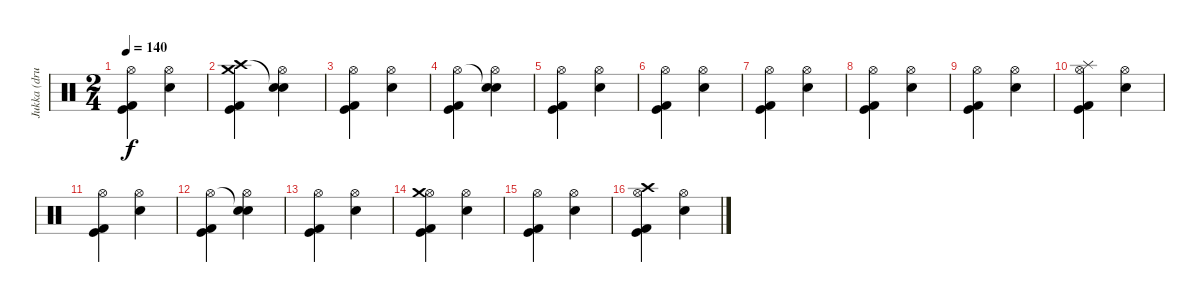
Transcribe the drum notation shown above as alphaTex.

\track ("Jukka (drums)" "Jukka (dru") {instrument percussion}
\staff {score}
\articulation defaults
\ts (2 4)
\tempo 140
\clef neutral
\ks c
("Kick (hit)" "Kick (hit) 2" "Hi-Hat (open)").4{dy f} ("Electric Snare (hit)" "Hi-Hat (open)").4 |
("Kick (hit)" "Kick (hit) 2" "Crash high (hit)" "Crash medium (hit)").4 ("Electric Snare (hit)" "Hi-Hat (open)" "Snare (hit)"{t}).4 |
("Kick (hit)" "Kick (hit) 2" "Hi-Hat (open)").4 ("Electric Snare (hit)" "Hi-Hat (open)").4 |
("Kick (hit)" "Kick (hit) 2" "Hi-Hat (open)").4 ("Electric Snare (hit)" "Hi-Hat (open)" "Snare (hit)"{t}).4 |
("Kick (hit)" "Kick (hit) 2" "Hi-Hat (open)").4 ("Electric Snare (hit)" "Hi-Hat (open)").4 |
("Kick (hit)" "Kick (hit) 2" "Hi-Hat (open)").4 ("Electric Snare (hit)" "Hi-Hat (open)").4 |
("Kick (hit)" "Kick (hit) 2" "Hi-Hat (open)").4 ("Electric Snare (hit)" "Hi-Hat (open)").4 |
("Kick (hit)" "Kick (hit) 2" "Hi-Hat (open)").4 ("Electric Snare (hit)" "Hi-Hat (open)").4 |
("Kick (hit)" "Kick (hit) 2" "Hi-Hat (open)").4 ("Electric Snare (hit)" "Hi-Hat (open)").4 |
("Kick (hit)" "Kick (hit) 2" "Hi-Hat (open)" "Splash (hit)").4 ("Electric Snare (hit)" "Hi-Hat (open)").4 |
("Kick (hit)" "Kick (hit) 2" "Hi-Hat (open)").4 ("Electric Snare (hit)" "Hi-Hat (open)").4 |
("Kick (hit)" "Kick (hit) 2" "Hi-Hat (open)").4 ("Electric Snare (hit)" "Hi-Hat (open)" "Snare (hit)"{t}).4 |
("Kick (hit)" "Kick (hit) 2" "Hi-Hat (open)").4 ("Electric Snare (hit)" "Hi-Hat (open)").4 |
("Kick (hit)" "Kick (hit) 2" "Hi-Hat (open)" "Crash medium (hit)").4 ("Electric Snare (hit)" "Hi-Hat (open)").4 |
("Kick (hit)" "Kick (hit) 2" "Hi-Hat (open)").4 ("Electric Snare (hit)" "Hi-Hat (open)").4 |
("Kick (hit)" "Kick (hit) 2" "Hi-Hat (open)" "Crash high (hit)").4 ("Electric Snare (hit)" "Hi-Hat (open)").4
